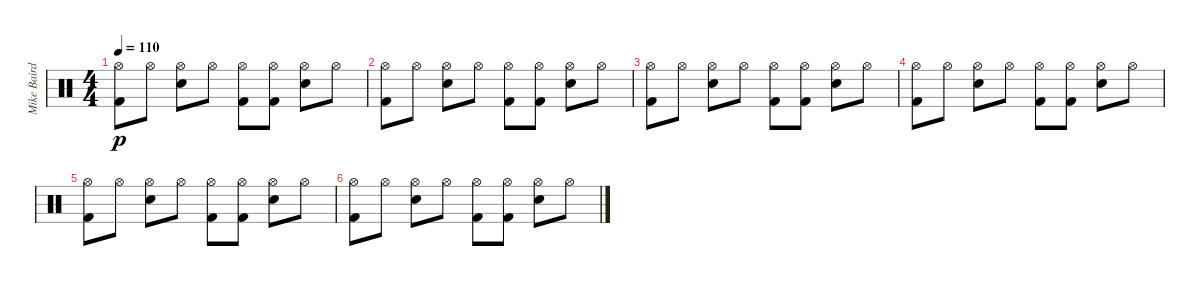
\track ("Mike Baird [drums]" "Mike Baird") {instrument percussion}
\staff {score}
\articulation defaults
\ts (4 4)
\tempo 110
\clef neutral
\ks c
("Hi-Hat (open)" "Kick (hit) 2").8{dy p} "Hi-Hat (open)".8 ("Hi-Hat (open)" "Electric Snare (hit)").8 "Hi-Hat (open)".8 ("Hi-Hat (open)" "Kick (hit) 2").8 ("Hi-Hat (open)" "Kick (hit) 2").8 ("Hi-Hat (open)" "Electric Snare (hit)").8 "Hi-Hat (open)".8 |
("Hi-Hat (open)" "Kick (hit) 2").8 "Hi-Hat (open)".8 ("Hi-Hat (open)" "Electric Snare (hit)").8 "Hi-Hat (open)".8 ("Hi-Hat (open)" "Kick (hit) 2").8 ("Hi-Hat (open)" "Kick (hit) 2").8 ("Hi-Hat (open)" "Electric Snare (hit)").8 "Hi-Hat (open)".8 |
("Hi-Hat (open)" "Kick (hit) 2").8 "Hi-Hat (open)".8 ("Hi-Hat (open)" "Electric Snare (hit)").8 "Hi-Hat (open)".8 ("Hi-Hat (open)" "Kick (hit) 2").8 ("Hi-Hat (open)" "Kick (hit) 2").8 ("Hi-Hat (open)" "Electric Snare (hit)").8 "Hi-Hat (open)".8 |
("Hi-Hat (open)" "Kick (hit) 2").8{volume 11} "Hi-Hat (open)".8 ("Hi-Hat (open)" "Electric Snare (hit)").8{volume 10} "Hi-Hat (open)".8 ("Hi-Hat (open)" "Kick (hit) 2").8{volume 9} ("Hi-Hat (open)" "Kick (hit) 2").8 ("Hi-Hat (open)" "Electric Snare (hit)").8{volume 8} "Hi-Hat (open)".8 |
("Hi-Hat (open)" "Kick (hit) 2").8{volume 7} "Hi-Hat (open)".8 ("Hi-Hat (open)" "Electric Snare (hit)").8{volume 6} "Hi-Hat (open)".8 ("Hi-Hat (open)" "Kick (hit) 2").8{volume 5} ("Hi-Hat (open)" "Kick (hit) 2").8 ("Hi-Hat (open)" "Electric Snare (hit)").8{volume 4} "Hi-Hat (open)".8 |
("Hi-Hat (open)" "Kick (hit) 2").8{volume 3} "Hi-Hat (open)".8 ("Hi-Hat (open)" "Electric Snare (hit)").8{volume 2} "Hi-Hat (open)".8 ("Hi-Hat (open)" "Kick (hit) 2").8{volume 1} ("Hi-Hat (open)" "Kick (hit) 2").8 ("Hi-Hat (open)" "Electric Snare (hit)").8{volume 0} "Hi-Hat (open)".8
